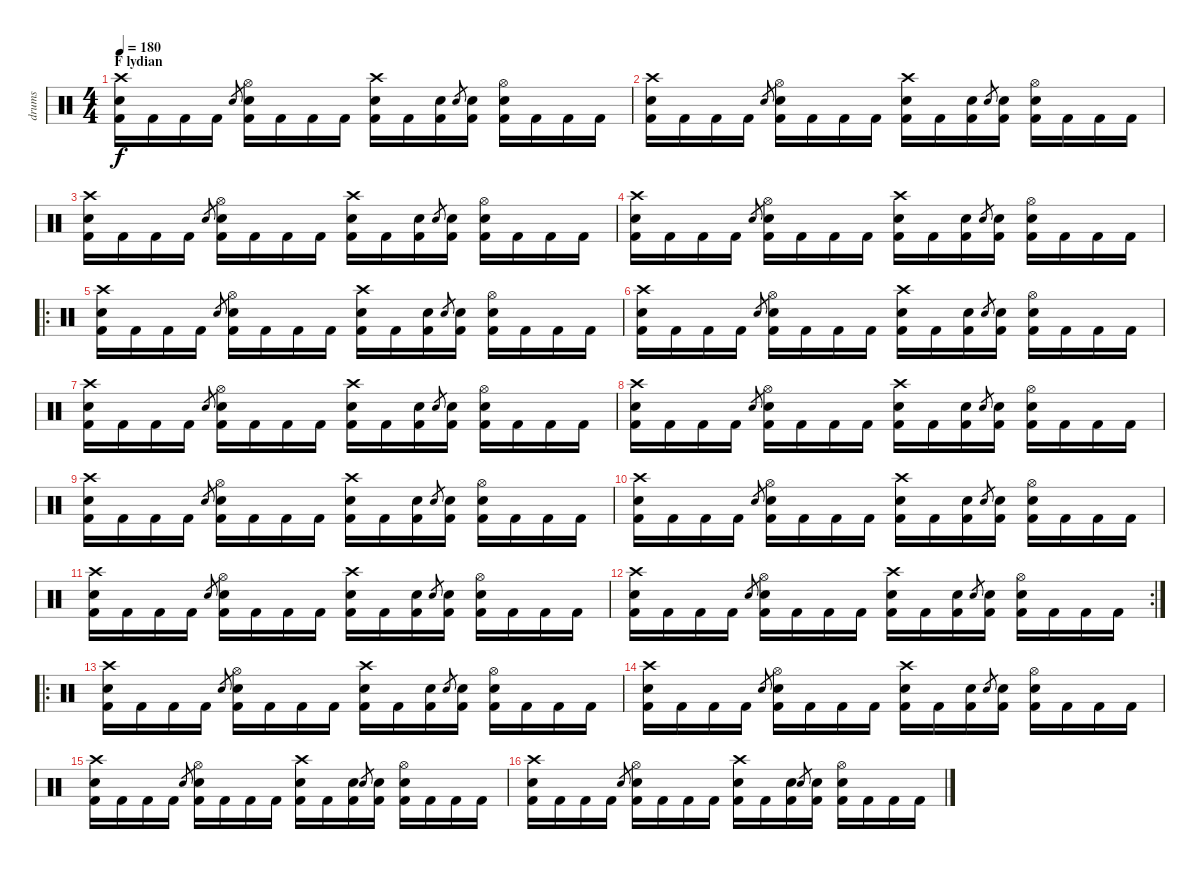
\track ("drums" "drums") {instrument percussion}
\staff {score}
\articulation defaults
\ts (4 4)
\section ("" "F lydian")
\tempo 180
\clef neutral
\ks c
("Kick (hit) 2" "Snare (hit) 2" "Crash high (hit)").16{dy f} "Kick (hit) 2".16 "Kick (hit) 2".16 "Kick (hit) 2".16 "Electric Snare (hit)".8{gr} ("Kick (hit) 2" "Electric Snare (hit)" "Hi-Hat (open)").16 "Kick (hit) 2".16 "Kick (hit) 2".16 "Kick (hit) 2".16 ("Kick (hit) 2" "Snare (hit) 2" "Crash high (hit)").16 "Kick (hit) 2".16 ("Kick (hit) 2" "Snare (hit) 2").16 "Electric Snare (hit)".8{gr} ("Kick (hit) 2" "Snare (hit) 2").16 ("Kick (hit) 2" "Electric Snare (hit)" "Hi-Hat (open)").16 "Kick (hit) 2".16 "Kick (hit) 2".16 "Kick (hit) 2".16 |
("Kick (hit) 2" "Snare (hit) 2" "Crash high (hit)").16 "Kick (hit) 2".16 "Kick (hit) 2".16 "Kick (hit) 2".16 "Electric Snare (hit)".8{gr} ("Kick (hit) 2" "Electric Snare (hit)" "Hi-Hat (open)").16 "Kick (hit) 2".16 "Kick (hit) 2".16 "Kick (hit) 2".16 ("Kick (hit) 2" "Snare (hit) 2" "Crash high (hit)").16 "Kick (hit) 2".16 ("Kick (hit) 2" "Snare (hit) 2").16 "Electric Snare (hit)".8{gr} ("Kick (hit) 2" "Snare (hit) 2").16 ("Kick (hit) 2" "Electric Snare (hit)" "Hi-Hat (open)").16 "Kick (hit) 2".16 "Kick (hit) 2".16 "Kick (hit) 2".16 |
("Kick (hit) 2" "Snare (hit) 2" "Crash high (hit)").16 "Kick (hit) 2".16 "Kick (hit) 2".16 "Kick (hit) 2".16 "Electric Snare (hit)".8{gr} ("Kick (hit) 2" "Electric Snare (hit)" "Hi-Hat (open)").16 "Kick (hit) 2".16 "Kick (hit) 2".16 "Kick (hit) 2".16 ("Kick (hit) 2" "Snare (hit) 2" "Crash high (hit)").16 "Kick (hit) 2".16 ("Kick (hit) 2" "Snare (hit) 2").16 "Electric Snare (hit)".8{gr} ("Kick (hit) 2" "Snare (hit) 2").16 ("Kick (hit) 2" "Electric Snare (hit)" "Hi-Hat (open)").16 "Kick (hit) 2".16 "Kick (hit) 2".16 "Kick (hit) 2".16 |
("Kick (hit) 2" "Snare (hit) 2" "Crash high (hit)").16 "Kick (hit) 2".16 "Kick (hit) 2".16 "Kick (hit) 2".16 "Electric Snare (hit)".8{gr} ("Kick (hit) 2" "Electric Snare (hit)" "Hi-Hat (open)").16 "Kick (hit) 2".16 "Kick (hit) 2".16 "Kick (hit) 2".16 ("Kick (hit) 2" "Snare (hit) 2" "Crash high (hit)").16 "Kick (hit) 2".16 ("Kick (hit) 2" "Snare (hit) 2").16 "Electric Snare (hit)".8{gr} ("Kick (hit) 2" "Snare (hit) 2").16 ("Kick (hit) 2" "Electric Snare (hit)" "Hi-Hat (open)").16 "Kick (hit) 2".16 "Kick (hit) 2".16 "Kick (hit) 2".16 |
\ro
("Kick (hit) 2" "Snare (hit) 2" "Crash high (hit)").16 "Kick (hit) 2".16 "Kick (hit) 2".16 "Kick (hit) 2".16 "Electric Snare (hit)".8{gr} ("Kick (hit) 2" "Electric Snare (hit)" "Hi-Hat (open)").16 "Kick (hit) 2".16 "Kick (hit) 2".16 "Kick (hit) 2".16 ("Kick (hit) 2" "Snare (hit) 2" "Crash high (hit)").16 "Kick (hit) 2".16 ("Kick (hit) 2" "Snare (hit) 2").16 "Electric Snare (hit)".8{gr} ("Kick (hit) 2" "Snare (hit) 2").16 ("Kick (hit) 2" "Electric Snare (hit)" "Hi-Hat (open)").16 "Kick (hit) 2".16 "Kick (hit) 2".16 "Kick (hit) 2".16 |
("Kick (hit) 2" "Snare (hit) 2" "Crash high (hit)").16 "Kick (hit) 2".16 "Kick (hit) 2".16 "Kick (hit) 2".16 "Electric Snare (hit)".8{gr} ("Kick (hit) 2" "Electric Snare (hit)" "Hi-Hat (open)").16 "Kick (hit) 2".16 "Kick (hit) 2".16 "Kick (hit) 2".16 ("Kick (hit) 2" "Snare (hit) 2" "Crash high (hit)").16 "Kick (hit) 2".16 ("Kick (hit) 2" "Snare (hit) 2").16 "Electric Snare (hit)".8{gr} ("Kick (hit) 2" "Snare (hit) 2").16 ("Kick (hit) 2" "Electric Snare (hit)" "Hi-Hat (open)").16 "Kick (hit) 2".16 "Kick (hit) 2".16 "Kick (hit) 2".16 |
("Kick (hit) 2" "Snare (hit) 2" "Crash high (hit)").16 "Kick (hit) 2".16 "Kick (hit) 2".16 "Kick (hit) 2".16 "Electric Snare (hit)".8{gr} ("Kick (hit) 2" "Electric Snare (hit)" "Hi-Hat (open)").16 "Kick (hit) 2".16 "Kick (hit) 2".16 "Kick (hit) 2".16 ("Kick (hit) 2" "Snare (hit) 2" "Crash high (hit)").16 "Kick (hit) 2".16 ("Kick (hit) 2" "Snare (hit) 2").16 "Electric Snare (hit)".8{gr} ("Kick (hit) 2" "Snare (hit) 2").16 ("Kick (hit) 2" "Electric Snare (hit)" "Hi-Hat (open)").16 "Kick (hit) 2".16 "Kick (hit) 2".16 "Kick (hit) 2".16 |
("Kick (hit) 2" "Snare (hit) 2" "Crash high (hit)").16 "Kick (hit) 2".16 "Kick (hit) 2".16 "Kick (hit) 2".16 "Electric Snare (hit)".8{gr} ("Kick (hit) 2" "Electric Snare (hit)" "Hi-Hat (open)").16 "Kick (hit) 2".16 "Kick (hit) 2".16 "Kick (hit) 2".16 ("Kick (hit) 2" "Snare (hit) 2" "Crash high (hit)").16 "Kick (hit) 2".16 ("Kick (hit) 2" "Snare (hit) 2").16 "Electric Snare (hit)".8{gr} ("Kick (hit) 2" "Snare (hit) 2").16 ("Kick (hit) 2" "Electric Snare (hit)" "Hi-Hat (open)").16 "Kick (hit) 2".16 "Kick (hit) 2".16 "Kick (hit) 2".16 |
("Kick (hit) 2" "Snare (hit) 2" "Crash high (hit)").16 "Kick (hit) 2".16 "Kick (hit) 2".16 "Kick (hit) 2".16 "Electric Snare (hit)".8{gr} ("Kick (hit) 2" "Electric Snare (hit)" "Hi-Hat (open)").16 "Kick (hit) 2".16 "Kick (hit) 2".16 "Kick (hit) 2".16 ("Kick (hit) 2" "Snare (hit) 2" "Crash high (hit)").16 "Kick (hit) 2".16 ("Kick (hit) 2" "Snare (hit) 2").16 "Electric Snare (hit)".8{gr} ("Kick (hit) 2" "Snare (hit) 2").16 ("Kick (hit) 2" "Electric Snare (hit)" "Hi-Hat (open)").16 "Kick (hit) 2".16 "Kick (hit) 2".16 "Kick (hit) 2".16 |
("Kick (hit) 2" "Snare (hit) 2" "Crash high (hit)").16 "Kick (hit) 2".16 "Kick (hit) 2".16 "Kick (hit) 2".16 "Electric Snare (hit)".8{gr} ("Kick (hit) 2" "Electric Snare (hit)" "Hi-Hat (open)").16 "Kick (hit) 2".16 "Kick (hit) 2".16 "Kick (hit) 2".16 ("Kick (hit) 2" "Snare (hit) 2" "Crash high (hit)").16 "Kick (hit) 2".16 ("Kick (hit) 2" "Snare (hit) 2").16 "Electric Snare (hit)".8{gr} ("Kick (hit) 2" "Snare (hit) 2").16 ("Kick (hit) 2" "Electric Snare (hit)" "Hi-Hat (open)").16 "Kick (hit) 2".16 "Kick (hit) 2".16 "Kick (hit) 2".16 |
("Kick (hit) 2" "Snare (hit) 2" "Crash high (hit)").16 "Kick (hit) 2".16 "Kick (hit) 2".16 "Kick (hit) 2".16 "Electric Snare (hit)".8{gr} ("Kick (hit) 2" "Electric Snare (hit)" "Hi-Hat (open)").16 "Kick (hit) 2".16 "Kick (hit) 2".16 "Kick (hit) 2".16 ("Kick (hit) 2" "Snare (hit) 2" "Crash high (hit)").16 "Kick (hit) 2".16 ("Kick (hit) 2" "Snare (hit) 2").16 "Electric Snare (hit)".8{gr} ("Kick (hit) 2" "Snare (hit) 2").16 ("Kick (hit) 2" "Electric Snare (hit)" "Hi-Hat (open)").16 "Kick (hit) 2".16 "Kick (hit) 2".16 "Kick (hit) 2".16 |
\rc 2
("Kick (hit) 2" "Snare (hit) 2" "Crash high (hit)").16 "Kick (hit) 2".16 "Kick (hit) 2".16 "Kick (hit) 2".16 "Electric Snare (hit)".8{gr} ("Kick (hit) 2" "Electric Snare (hit)" "Hi-Hat (open)").16 "Kick (hit) 2".16 "Kick (hit) 2".16 "Kick (hit) 2".16 ("Kick (hit) 2" "Snare (hit) 2" "Crash high (hit)").16 "Kick (hit) 2".16 ("Kick (hit) 2" "Snare (hit) 2").16 "Electric Snare (hit)".8{gr} ("Kick (hit) 2" "Snare (hit) 2").16 ("Kick (hit) 2" "Electric Snare (hit)" "Hi-Hat (open)").16 "Kick (hit) 2".16 "Kick (hit) 2".16 "Kick (hit) 2".16 |
\ro
("Kick (hit) 2" "Snare (hit) 2" "Crash high (hit)").16 "Kick (hit) 2".16 "Kick (hit) 2".16 "Kick (hit) 2".16 "Electric Snare (hit)".8{gr} ("Kick (hit) 2" "Electric Snare (hit)" "Hi-Hat (open)").16 "Kick (hit) 2".16 "Kick (hit) 2".16 "Kick (hit) 2".16 ("Kick (hit) 2" "Snare (hit) 2" "Crash high (hit)").16 "Kick (hit) 2".16 ("Kick (hit) 2" "Snare (hit) 2").16 "Electric Snare (hit)".8{gr} ("Kick (hit) 2" "Snare (hit) 2").16 ("Kick (hit) 2" "Electric Snare (hit)" "Hi-Hat (open)").16 "Kick (hit) 2".16 "Kick (hit) 2".16 "Kick (hit) 2".16 |
("Kick (hit) 2" "Snare (hit) 2" "Crash high (hit)").16 "Kick (hit) 2".16 "Kick (hit) 2".16 "Kick (hit) 2".16 "Electric Snare (hit)".8{gr} ("Kick (hit) 2" "Electric Snare (hit)" "Hi-Hat (open)").16 "Kick (hit) 2".16 "Kick (hit) 2".16 "Kick (hit) 2".16 ("Kick (hit) 2" "Snare (hit) 2" "Crash high (hit)").16 "Kick (hit) 2".16 ("Kick (hit) 2" "Snare (hit) 2").16 "Electric Snare (hit)".8{gr} ("Kick (hit) 2" "Snare (hit) 2").16 ("Kick (hit) 2" "Electric Snare (hit)" "Hi-Hat (open)").16 "Kick (hit) 2".16 "Kick (hit) 2".16 "Kick (hit) 2".16 |
("Kick (hit) 2" "Snare (hit) 2" "Crash high (hit)").16 "Kick (hit) 2".16 "Kick (hit) 2".16 "Kick (hit) 2".16 "Electric Snare (hit)".8{gr} ("Kick (hit) 2" "Electric Snare (hit)" "Hi-Hat (open)").16 "Kick (hit) 2".16 "Kick (hit) 2".16 "Kick (hit) 2".16 ("Kick (hit) 2" "Snare (hit) 2" "Crash high (hit)").16 "Kick (hit) 2".16 ("Kick (hit) 2" "Snare (hit) 2").16 "Electric Snare (hit)".8{gr} ("Kick (hit) 2" "Snare (hit) 2").16 ("Kick (hit) 2" "Electric Snare (hit)" "Hi-Hat (open)").16 "Kick (hit) 2".16 "Kick (hit) 2".16 "Kick (hit) 2".16 |
("Kick (hit) 2" "Snare (hit) 2" "Crash high (hit)").16 "Kick (hit) 2".16 "Kick (hit) 2".16 "Kick (hit) 2".16 "Electric Snare (hit)".8{gr} ("Kick (hit) 2" "Electric Snare (hit)" "Hi-Hat (open)").16 "Kick (hit) 2".16 "Kick (hit) 2".16 "Kick (hit) 2".16 ("Kick (hit) 2" "Snare (hit) 2" "Crash high (hit)").16 "Kick (hit) 2".16 ("Kick (hit) 2" "Snare (hit) 2").16 "Electric Snare (hit)".8{gr} ("Kick (hit) 2" "Snare (hit) 2").16 ("Kick (hit) 2" "Electric Snare (hit)" "Hi-Hat (open)").16 "Kick (hit) 2".16 "Kick (hit) 2".16 "Kick (hit) 2".16
